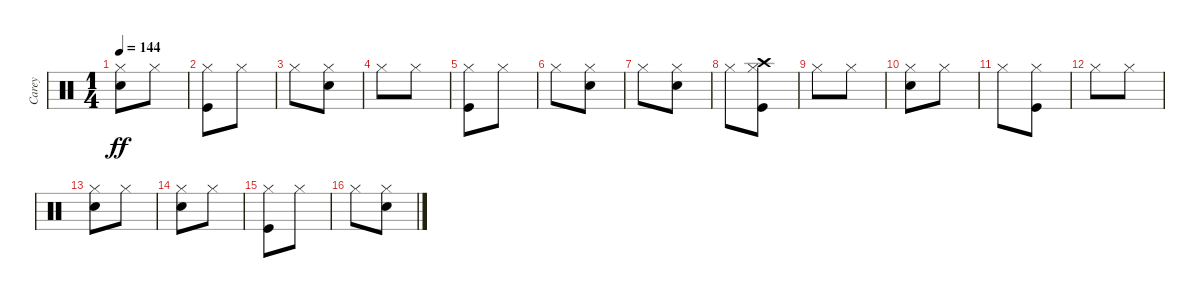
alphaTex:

\track ("Carey" "Carey") {instrument percussion}
\staff {score}
\articulation defaults
\ts (1 4)
\tempo 144
\clef neutral
\ks c
("Snare (hit) 2" "Hi-Hat (closed)").8{dy ff} "Hi-Hat (closed)".8 |
("Kick (hit)" "Hi-Hat (closed)").8 "Hi-Hat (closed)".8 |
"Hi-Hat (closed)".8 ("Snare (hit) 2" "Hi-Hat (closed)").8 |
"Hi-Hat (closed)".8 "Hi-Hat (closed)".8 |
("Kick (hit)" "Hi-Hat (closed)").8 "Hi-Hat (closed)".8 |
"Hi-Hat (closed)".8 ("Snare (hit) 2" "Hi-Hat (closed)").8 |
"Hi-Hat (closed)".8 ("Snare (hit) 2" "Hi-Hat (closed)").8 |
"Hi-Hat (closed)".8 ("Kick (hit)" "Hi-Hat (closed)" "Crash high (hit)").8 |
"Hi-Hat (closed)".8 "Hi-Hat (closed)".8 |
("Snare (hit) 2" "Hi-Hat (closed)").8 "Hi-Hat (closed)".8 |
"Hi-Hat (closed)".8 ("Kick (hit)" "Hi-Hat (closed)").8 |
"Hi-Hat (closed)".8 "Hi-Hat (closed)".8 |
("Snare (hit) 2" "Hi-Hat (closed)").8 "Hi-Hat (closed)".8 |
("Snare (hit) 2" "Hi-Hat (closed)").8 "Hi-Hat (closed)".8 |
("Kick (hit)" "Hi-Hat (closed)").8 "Hi-Hat (closed)".8 |
"Hi-Hat (closed)".8 ("Snare (hit) 2" "Hi-Hat (closed)").8
